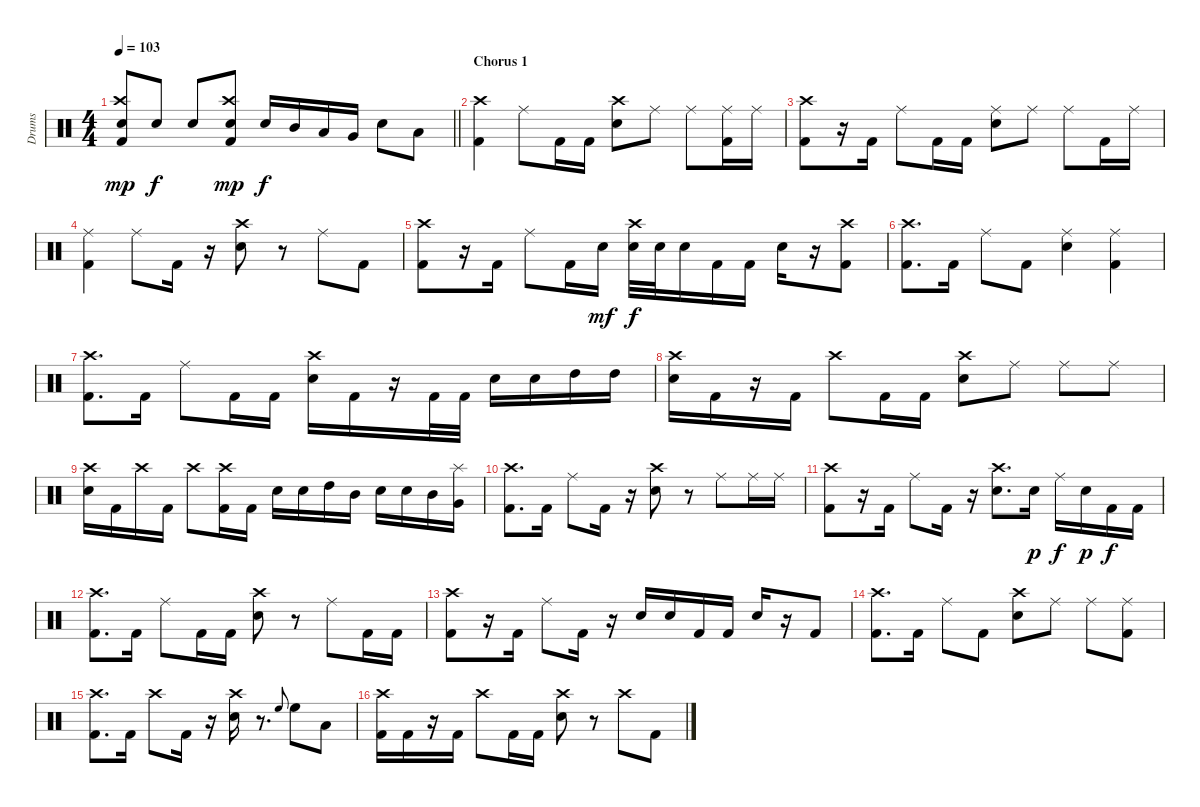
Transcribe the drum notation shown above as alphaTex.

\track ("Drums" "Drums") {instrument percussion}
\staff {score}
\articulation defaults
\ts (4 4)
\tempo 103
\clef neutral
\barLineRight lightlight
\ks c
("Snare (hit) 2" "Crash high (hit)" "Kick (hit) 2").8{dy mp} "Snare (hit) 2".8{dy f} "Snare (hit) 2".8 ("Crash high (hit)" "Snare (hit) 2" "Kick (hit) 2").8{dy mp} "Snare (hit) 2".16{dy f} "Mid Tom (hit)".16 "Low Tom (hit)".16 "Very Low Tom (hit)".16 "Snare (hit) 2".8 "Low Tom (hit)".8 |
\section ("" "Chorus 1")
("Kick (hit) 2" "Crash high (hit)").4 "Ride (middle)".8 "Kick (hit) 2".16 "Kick (hit) 2".16 ("Crash high (hit)" "Snare (hit) 2").8 "Ride (middle)".8 "Ride (middle)".8 ("Ride (middle)" "Kick (hit) 2").16 "Ride (middle)".16 |
("Crash high (hit)" "Kick (hit) 2").8 r.16 "Kick (hit) 2".16 "Ride (middle)".8 "Kick (hit) 2".16 "Kick (hit) 2".16 ("Ride (middle)" "Snare (hit) 2").8 "Ride (middle)".8 "Ride (middle)".8 "Kick (hit) 2".16 "Ride (middle)".16 |
("Ride (middle)" "Kick (hit) 2").4 "Ride (middle)".8 "Kick (hit) 2".16 r.16 ("Crash high (hit)" "Snare (hit) 2").8 r.8 "Ride (middle)".8 "Kick (hit) 2".8 |
("Crash high (hit)" "Kick (hit) 2").8 r.16 "Kick (hit) 2".16 "Ride (middle)".8 "Kick (hit) 2".16 "Snare (hit) 2".16{dy mf} ("Crash high (hit)" "Snare (hit) 2").32{dy f} "Snare (hit) 2".32 "Snare (hit) 2".16 "Kick (hit) 2".16 "Kick (hit) 2".16 "Snare (hit) 2".16 r.16 ("Crash high (hit)" "Kick (hit) 2").8 |
("Kick (hit) 2" "Crash high (hit)").8{d} "Kick (hit) 2".16 "Ride (middle)".8 "Kick (hit) 2".8 ("Ride (middle)" "Snare (hit) 2").4 ("Ride (middle)" "Kick (hit) 2").4 |
("Kick (hit) 2" "Crash high (hit)").8{d} "Kick (hit) 2".16 "Ride (middle)".8 "Kick (hit) 2".16 "Kick (hit) 2".16 ("Crash high (hit)" "Snare (hit) 2").16 "Kick (hit) 2".16 r.16 "Kick (hit) 2".32 "Kick (hit) 2".32 "Snare (hit) 2".16 "Snare (hit) 2".16 "High Tom (hit)".16 "High Tom (hit)".16 |
("Crash high (hit)" "Snare (hit) 2").16 "Kick (hit) 2".16 r.16 "Kick (hit) 2".16 "Crash high (hit)".8 "Kick (hit) 2".16 "Kick (hit) 2".16 ("Crash high (hit)" "Snare (hit) 2").8 "Ride (middle)".8 "Ride (middle)".8 "Ride (middle)".8 |
("Snare (hit) 2" "Crash high (hit)").16 "Kick (hit) 2".16 "Crash high (hit)".16 "Kick (hit) 2".16 "Crash high (hit)".8 ("Crash high (hit)" "Kick (hit) 2").16 "Kick (hit) 2".16 "Snare (hit) 2".16 "Snare (hit) 2".16 "High Tom (hit)".16 "Mid Tom (hit)".16 "Snare (hit) 2".16 "Snare (hit) 2".16 "Mid Tom (hit)".16 ("Splash (hit)" "Very Low Tom (hit)").16 |
("Kick (hit) 2" "Crash high (hit)").8{d} "Kick (hit) 2".16 "Ride (middle)".8 "Kick (hit) 2".16 r.16 ("Crash high (hit)" "Snare (hit) 2").8 r.8 "Ride (middle)".8 "Ride (middle)".16 "Ride (middle)".16 |
("Crash high (hit)" "Kick (hit) 2").8 r.16 "Kick (hit) 2".16 "Ride (middle)".8 "Kick (hit) 2".16 r.16 ("Crash high (hit)" "Snare (hit) 2").8{d} "Snare (hit) 2".16{dy p} "Ride (middle)".16{dy f} "Snare (hit) 2".16{dy p} "Kick (hit) 2".16{dy f} "Kick (hit) 2".16 |
("Crash high (hit)" "Kick (hit) 2").8{d} "Kick (hit) 2".16 "Ride (middle)".8 "Kick (hit) 2".16 "Kick (hit) 2".16 ("Crash high (hit)" "Snare (hit) 2").8 r.8 "Ride (middle)".8 "Kick (hit) 2".16 "Kick (hit) 2".16 |
("Crash high (hit)" "Kick (hit) 2").8 r.16 "Kick (hit) 2".16 "Ride (middle)".8 "Kick (hit) 2".16 r.16 "Snare (hit) 2".16 "Snare (hit) 2".16 "Kick (hit) 2".16 "Kick (hit) 2".16 "Snare (hit) 2".16 r.16 "Kick (hit) 2".8 |
("Kick (hit) 2" "Crash high (hit)").8{d} "Kick (hit) 2".16 "Ride (middle)".8 "Kick (hit) 2".8 ("Crash high (hit)" "Snare (hit) 2").8 "Ride (middle)".8 "Ride (middle)".8 ("Ride (middle)" "Kick (hit) 2").8 |
("Kick (hit) 2" "Crash high (hit)").8{d} "Kick (hit) 2".16 "Crash high (hit)".8 "Kick (hit) 2".16 r.16 ("Crash high (hit)" "Snare (hit) 2").16 r.8{d} "High Floor Tom (hit)".8{gr onbeat} "High Floor Tom (hit)".8 "Low Tom (hit)".8 |
("Crash high (hit)" "Kick (hit) 2").16 "Kick (hit) 2".16 r.16 "Kick (hit) 2".16 "Crash high (hit)".8 "Kick (hit) 2".16 "Kick (hit) 2".16 ("Crash high (hit)" "Snare (hit) 2").8 r.8 "Crash high (hit)".8 "Kick (hit) 2".8
